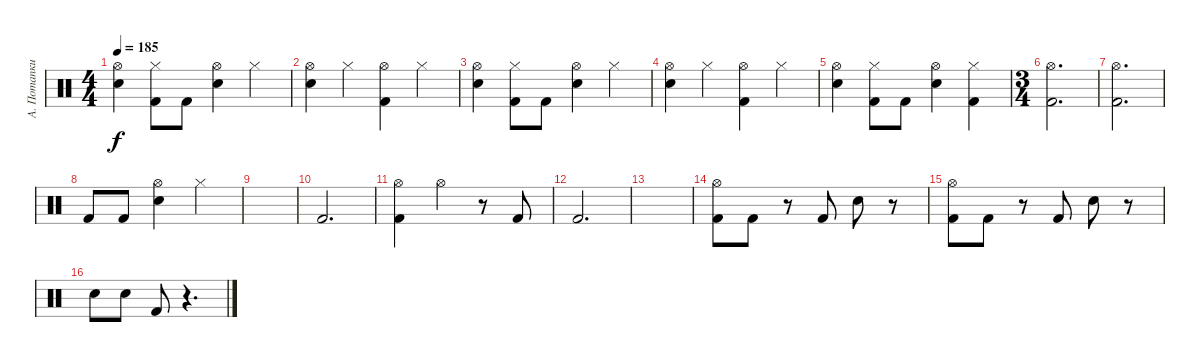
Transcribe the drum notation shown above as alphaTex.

\track ("А. Потапкин" "А. Потапки") {instrument percussion}
\staff {score}
\articulation defaults
\ts (4 4)
\tempo 185
\clef neutral
\ks c
("Hi-Hat (open)" "Snare (hit) 2").4{dy f} ("Hi-Hat (closed)" "Kick (hit) 2").8 "Kick (hit) 2".8 ("Hi-Hat (open)" "Snare (hit) 2").4 "Hi-Hat (closed)".4 |
("Hi-Hat (open)" "Snare (hit) 2").4 "Hi-Hat (closed)".4 ("Hi-Hat (open)" "Kick (hit) 2").4 "Hi-Hat (closed)".4 |
("Hi-Hat (open)" "Snare (hit) 2").4 ("Hi-Hat (closed)" "Kick (hit) 2").8 "Kick (hit) 2".8 ("Hi-Hat (open)" "Snare (hit) 2").4 "Hi-Hat (closed)".4 |
("Hi-Hat (open)" "Snare (hit) 2").4 "Hi-Hat (closed)".4 ("Hi-Hat (open)" "Kick (hit) 2").4 "Hi-Hat (closed)".4 |
("Hi-Hat (open)" "Snare (hit) 2").4 ("Hi-Hat (closed)" "Kick (hit) 2").8 "Kick (hit) 2".8 ("Hi-Hat (open)" "Snare (hit) 2").4 ("Hi-Hat (closed)" "Kick (hit) 2").4 |
\ts (3 4)
("Hi-Hat (open)" "Kick (hit) 2").2{d} |
("Hi-Hat (open)" "Kick (hit) 2").2{d} |
"Kick (hit) 2".8 "Kick (hit) 2".8 ("Hi-Hat (open)" "Snare (hit) 2").4 "Hi-Hat (closed)".4 |
|
"Kick (hit) 2".2{d} |
("Hi-Hat (open)" "Kick (hit) 2").4 "Hi-Hat (open)".4 r.8 "Kick (hit) 2".8 |
"Kick (hit) 2".2{d} |
|
("Hi-Hat (open)" "Kick (hit) 2").8 "Kick (hit) 2".8 r.8 "Kick (hit) 2".8 "Electric Snare (hit)".8 r.8 |
("Hi-Hat (open)" "Kick (hit) 2").8 "Kick (hit) 2".8 r.8 "Kick (hit) 2".8 "Electric Snare (hit)".8 r.8 |
"Electric Snare (hit)".8 "Electric Snare (hit)".8 "Kick (hit) 2".8 r.4{d}
